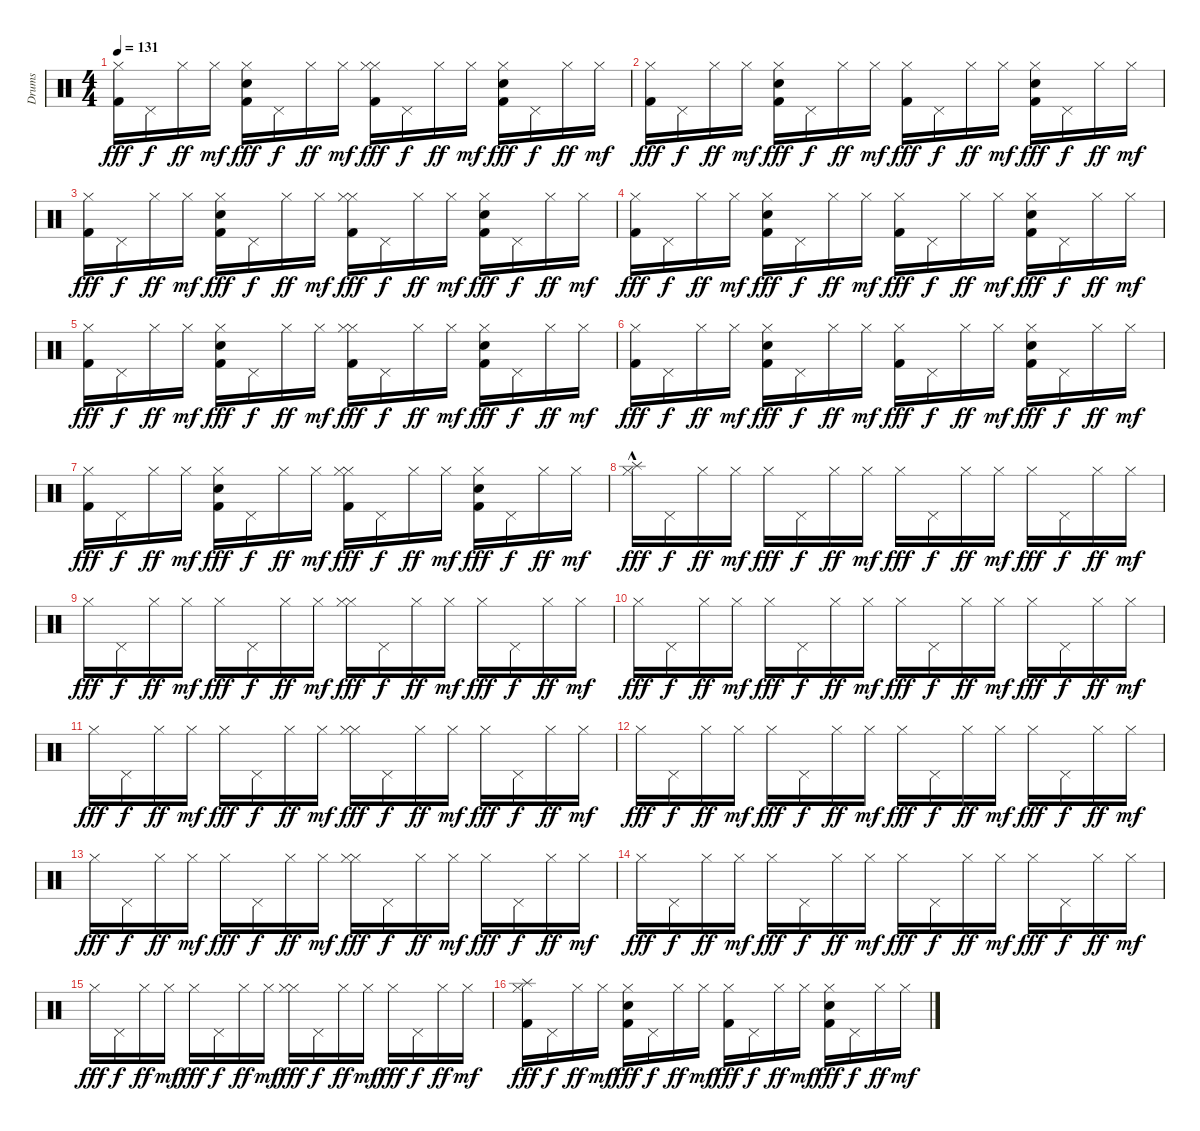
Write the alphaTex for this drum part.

\track ("Drums" "Drums") {instrument percussion}
\staff {score}
\articulation defaults
\ts (4 4)
\tempo 131
\clef neutral
\ks c
("Kick (hit) 2" "Hi-Hat (closed)").16{dy fff} "Pedal Hi-Hat (hit)".16{dy f} "Hi-Hat (closed)".16{dy ff} "Hi-Hat (closed)".16{dy mf} ("Kick (hit) 2" "Hand Clap (hit)" "Hi-Hat (closed)").16{dy fff} "Pedal Hi-Hat (hit)".16{dy f} "Hi-Hat (closed)".16{dy ff} "Hi-Hat (closed)".16{dy mf} ("Kick (hit) 2" "Hi-Hat (closed)" "Hi-Hat (closed)").16{dy fff} "Pedal Hi-Hat (hit)".16{dy f} "Hi-Hat (closed)".16{dy ff} "Hi-Hat (closed)".16{dy mf} ("Kick (hit) 2" "Hand Clap (hit)" "Hi-Hat (closed)").16{dy fff} "Pedal Hi-Hat (hit)".16{dy f} "Hi-Hat (closed)".16{dy ff} "Hi-Hat (closed)".16{dy mf} |
("Kick (hit) 2" "Hi-Hat (closed)").16{dy fff} "Pedal Hi-Hat (hit)".16{dy f} "Hi-Hat (closed)".16{dy ff} "Hi-Hat (closed)".16{dy mf} ("Kick (hit) 2" "Hand Clap (hit)" "Hi-Hat (closed)").16{dy fff} "Pedal Hi-Hat (hit)".16{dy f} "Hi-Hat (closed)".16{dy ff} "Hi-Hat (closed)".16{dy mf} ("Kick (hit) 2" "Hi-Hat (closed)").16{dy fff} "Pedal Hi-Hat (hit)".16{dy f} "Hi-Hat (closed)".16{dy ff} "Hi-Hat (closed)".16{dy mf} ("Kick (hit) 2" "Hand Clap (hit)" "Hi-Hat (closed)").16{dy fff} "Pedal Hi-Hat (hit)".16{dy f} "Hi-Hat (closed)".16{dy ff} "Hi-Hat (closed)".16{dy mf} |
("Kick (hit) 2" "Hi-Hat (closed)").16{dy fff} "Pedal Hi-Hat (hit)".16{dy f} "Hi-Hat (closed)".16{dy ff} "Hi-Hat (closed)".16{dy mf} ("Kick (hit) 2" "Hand Clap (hit)" "Hi-Hat (closed)").16{dy fff} "Pedal Hi-Hat (hit)".16{dy f} "Hi-Hat (closed)".16{dy ff} "Hi-Hat (closed)".16{dy mf} ("Kick (hit) 2" "Hi-Hat (closed)" "Hi-Hat (closed)").16{dy fff} "Pedal Hi-Hat (hit)".16{dy f} "Hi-Hat (closed)".16{dy ff} "Hi-Hat (closed)".16{dy mf} ("Kick (hit) 2" "Hand Clap (hit)" "Hi-Hat (closed)").16{dy fff} "Pedal Hi-Hat (hit)".16{dy f} "Hi-Hat (closed)".16{dy ff} "Hi-Hat (closed)".16{dy mf} |
("Kick (hit) 2" "Hi-Hat (closed)").16{dy fff} "Pedal Hi-Hat (hit)".16{dy f} "Hi-Hat (closed)".16{dy ff} "Hi-Hat (closed)".16{dy mf} ("Kick (hit) 2" "Hand Clap (hit)" "Hi-Hat (closed)").16{dy fff} "Pedal Hi-Hat (hit)".16{dy f} "Hi-Hat (closed)".16{dy ff} "Hi-Hat (closed)".16{dy mf} ("Kick (hit) 2" "Hi-Hat (closed)").16{dy fff} "Pedal Hi-Hat (hit)".16{dy f} "Hi-Hat (closed)".16{dy ff} "Hi-Hat (closed)".16{dy mf} ("Kick (hit) 2" "Hand Clap (hit)" "Hi-Hat (closed)").16{dy fff} "Pedal Hi-Hat (hit)".16{dy f} "Hi-Hat (closed)".16{dy ff} "Hi-Hat (closed)".16{dy mf} |
("Kick (hit) 2" "Hi-Hat (closed)").16{dy fff} "Pedal Hi-Hat (hit)".16{dy f} "Hi-Hat (closed)".16{dy ff} "Hi-Hat (closed)".16{dy mf} ("Kick (hit) 2" "Hand Clap (hit)" "Hi-Hat (closed)").16{dy fff} "Pedal Hi-Hat (hit)".16{dy f} "Hi-Hat (closed)".16{dy ff} "Hi-Hat (closed)".16{dy mf} ("Kick (hit) 2" "Hi-Hat (closed)" "Hi-Hat (closed)").16{dy fff} "Pedal Hi-Hat (hit)".16{dy f} "Hi-Hat (closed)".16{dy ff} "Hi-Hat (closed)".16{dy mf} ("Kick (hit) 2" "Hand Clap (hit)" "Hi-Hat (closed)").16{dy fff} "Pedal Hi-Hat (hit)".16{dy f} "Hi-Hat (closed)".16{dy ff} "Hi-Hat (closed)".16{dy mf} |
("Kick (hit) 2" "Hi-Hat (closed)").16{dy fff} "Pedal Hi-Hat (hit)".16{dy f} "Hi-Hat (closed)".16{dy ff} "Hi-Hat (closed)".16{dy mf} ("Kick (hit) 2" "Hand Clap (hit)" "Hi-Hat (closed)").16{dy fff} "Pedal Hi-Hat (hit)".16{dy f} "Hi-Hat (closed)".16{dy ff} "Hi-Hat (closed)".16{dy mf} ("Kick (hit) 2" "Hi-Hat (closed)").16{dy fff} "Pedal Hi-Hat (hit)".16{dy f} "Hi-Hat (closed)".16{dy ff} "Hi-Hat (closed)".16{dy mf} ("Kick (hit) 2" "Hand Clap (hit)" "Hi-Hat (closed)").16{dy fff} "Pedal Hi-Hat (hit)".16{dy f} "Hi-Hat (closed)".16{dy ff} "Hi-Hat (closed)".16{dy mf} |
("Kick (hit) 2" "Hi-Hat (closed)").16{dy fff} "Pedal Hi-Hat (hit)".16{dy f} "Hi-Hat (closed)".16{dy ff} "Hi-Hat (closed)".16{dy mf} ("Kick (hit) 2" "Hand Clap (hit)" "Hi-Hat (closed)").16{dy fff} "Pedal Hi-Hat (hit)".16{dy f} "Hi-Hat (closed)".16{dy ff} "Hi-Hat (closed)".16{dy mf} ("Kick (hit) 2" "Hi-Hat (closed)" "Hi-Hat (closed)").16{dy fff} "Pedal Hi-Hat (hit)".16{dy f} "Hi-Hat (closed)".16{dy ff} "Hi-Hat (closed)".16{dy mf} ("Kick (hit) 2" "Hand Clap (hit)" "Hi-Hat (closed)").16{dy fff} "Pedal Hi-Hat (hit)".16{dy f} "Hi-Hat (closed)".16{dy ff} "Hi-Hat (closed)".16{dy mf} |
("Splash (hit)"{hac} "Hi-Hat (closed)").16{dy fff} "Pedal Hi-Hat (hit)".16{dy f} "Hi-Hat (closed)".16{dy ff} "Hi-Hat (closed)".16{dy mf} "Hi-Hat (closed)".16{dy fff} "Pedal Hi-Hat (hit)".16{dy f} "Hi-Hat (closed)".16{dy ff} "Hi-Hat (closed)".16{dy mf} "Hi-Hat (closed)".16{dy fff} "Pedal Hi-Hat (hit)".16{dy f} "Hi-Hat (closed)".16{dy ff} "Hi-Hat (closed)".16{dy mf} "Hi-Hat (closed)".16{dy fff} "Pedal Hi-Hat (hit)".16{dy f} "Hi-Hat (closed)".16{dy ff} "Hi-Hat (closed)".16{dy mf} |
"Hi-Hat (closed)".16{dy fff} "Pedal Hi-Hat (hit)".16{dy f} "Hi-Hat (closed)".16{dy ff} "Hi-Hat (closed)".16{dy mf} "Hi-Hat (closed)".16{dy fff} "Pedal Hi-Hat (hit)".16{dy f} "Hi-Hat (closed)".16{dy ff} "Hi-Hat (closed)".16{dy mf} ("Hi-Hat (closed)" "Hi-Hat (closed)").16{dy fff} "Pedal Hi-Hat (hit)".16{dy f} "Hi-Hat (closed)".16{dy ff} "Hi-Hat (closed)".16{dy mf} "Hi-Hat (closed)".16{dy fff} "Pedal Hi-Hat (hit)".16{dy f} "Hi-Hat (closed)".16{dy ff} "Hi-Hat (closed)".16{dy mf} |
"Hi-Hat (closed)".16{dy fff} "Pedal Hi-Hat (hit)".16{dy f} "Hi-Hat (closed)".16{dy ff} "Hi-Hat (closed)".16{dy mf} "Hi-Hat (closed)".16{dy fff} "Pedal Hi-Hat (hit)".16{dy f} "Hi-Hat (closed)".16{dy ff} "Hi-Hat (closed)".16{dy mf} "Hi-Hat (closed)".16{dy fff} "Pedal Hi-Hat (hit)".16{dy f} "Hi-Hat (closed)".16{dy ff} "Hi-Hat (closed)".16{dy mf} "Hi-Hat (closed)".16{dy fff} "Pedal Hi-Hat (hit)".16{dy f} "Hi-Hat (closed)".16{dy ff} "Hi-Hat (closed)".16{dy mf} |
"Hi-Hat (closed)".16{dy fff} "Pedal Hi-Hat (hit)".16{dy f} "Hi-Hat (closed)".16{dy ff} "Hi-Hat (closed)".16{dy mf} "Hi-Hat (closed)".16{dy fff} "Pedal Hi-Hat (hit)".16{dy f} "Hi-Hat (closed)".16{dy ff} "Hi-Hat (closed)".16{dy mf} ("Hi-Hat (closed)" "Hi-Hat (closed)").16{dy fff} "Pedal Hi-Hat (hit)".16{dy f} "Hi-Hat (closed)".16{dy ff} "Hi-Hat (closed)".16{dy mf} "Hi-Hat (closed)".16{dy fff} "Pedal Hi-Hat (hit)".16{dy f} "Hi-Hat (closed)".16{dy ff} "Hi-Hat (closed)".16{dy mf} |
"Hi-Hat (closed)".16{dy fff} "Pedal Hi-Hat (hit)".16{dy f} "Hi-Hat (closed)".16{dy ff} "Hi-Hat (closed)".16{dy mf} "Hi-Hat (closed)".16{dy fff} "Pedal Hi-Hat (hit)".16{dy f} "Hi-Hat (closed)".16{dy ff} "Hi-Hat (closed)".16{dy mf} "Hi-Hat (closed)".16{dy fff} "Pedal Hi-Hat (hit)".16{dy f} "Hi-Hat (closed)".16{dy ff} "Hi-Hat (closed)".16{dy mf} "Hi-Hat (closed)".16{dy fff} "Pedal Hi-Hat (hit)".16{dy f} "Hi-Hat (closed)".16{dy ff} "Hi-Hat (closed)".16{dy mf} |
"Hi-Hat (closed)".16{dy fff} "Pedal Hi-Hat (hit)".16{dy f} "Hi-Hat (closed)".16{dy ff} "Hi-Hat (closed)".16{dy mf} "Hi-Hat (closed)".16{dy fff} "Pedal Hi-Hat (hit)".16{dy f} "Hi-Hat (closed)".16{dy ff} "Hi-Hat (closed)".16{dy mf} ("Hi-Hat (closed)" "Hi-Hat (closed)").16{dy fff} "Pedal Hi-Hat (hit)".16{dy f} "Hi-Hat (closed)".16{dy ff} "Hi-Hat (closed)".16{dy mf} "Hi-Hat (closed)".16{dy fff} "Pedal Hi-Hat (hit)".16{dy f} "Hi-Hat (closed)".16{dy ff} "Hi-Hat (closed)".16{dy mf} |
"Hi-Hat (closed)".16{dy fff} "Pedal Hi-Hat (hit)".16{dy f} "Hi-Hat (closed)".16{dy ff} "Hi-Hat (closed)".16{dy mf} "Hi-Hat (closed)".16{dy fff} "Pedal Hi-Hat (hit)".16{dy f} "Hi-Hat (closed)".16{dy ff} "Hi-Hat (closed)".16{dy mf} "Hi-Hat (closed)".16{dy fff} "Pedal Hi-Hat (hit)".16{dy f} "Hi-Hat (closed)".16{dy ff} "Hi-Hat (closed)".16{dy mf} "Hi-Hat (closed)".16{dy fff} "Pedal Hi-Hat (hit)".16{dy f} "Hi-Hat (closed)".16{dy ff} "Hi-Hat (closed)".16{dy mf} |
"Hi-Hat (closed)".16{dy fff} "Pedal Hi-Hat (hit)".16{dy f} "Hi-Hat (closed)".16{dy ff} "Hi-Hat (closed)".16{dy mf} "Hi-Hat (closed)".16{dy fff} "Pedal Hi-Hat (hit)".16{dy f} "Hi-Hat (closed)".16{dy ff} "Hi-Hat (closed)".16{dy mf} ("Hi-Hat (closed)" "Hi-Hat (closed)").16{dy fff} "Pedal Hi-Hat (hit)".16{dy f} "Hi-Hat (closed)".16{dy ff} "Hi-Hat (closed)".16{dy mf} "Hi-Hat (closed)".16{dy fff} "Pedal Hi-Hat (hit)".16{dy f} "Hi-Hat (closed)".16{dy ff} "Hi-Hat (closed)".16{dy mf} |
("Kick (hit) 2" "Splash (hit)" "Hi-Hat (closed)").16{dy fff} "Pedal Hi-Hat (hit)".16{dy f} "Hi-Hat (closed)".16{dy ff} "Hi-Hat (closed)".16{dy mf} ("Kick (hit) 2" "Hand Clap (hit)" "Hi-Hat (closed)").16{dy fff} "Pedal Hi-Hat (hit)".16{dy f} "Hi-Hat (closed)".16{dy ff} "Hi-Hat (closed)".16{dy mf} ("Kick (hit) 2" "Hi-Hat (closed)").16{dy fff} "Pedal Hi-Hat (hit)".16{dy f} "Hi-Hat (closed)".16{dy ff} "Hi-Hat (closed)".16{dy mf} ("Kick (hit) 2" "Hand Clap (hit)" "Hi-Hat (closed)").16{dy fff} "Pedal Hi-Hat (hit)".16{dy f} "Hi-Hat (closed)".16{dy ff} "Hi-Hat (closed)".16{dy mf}
